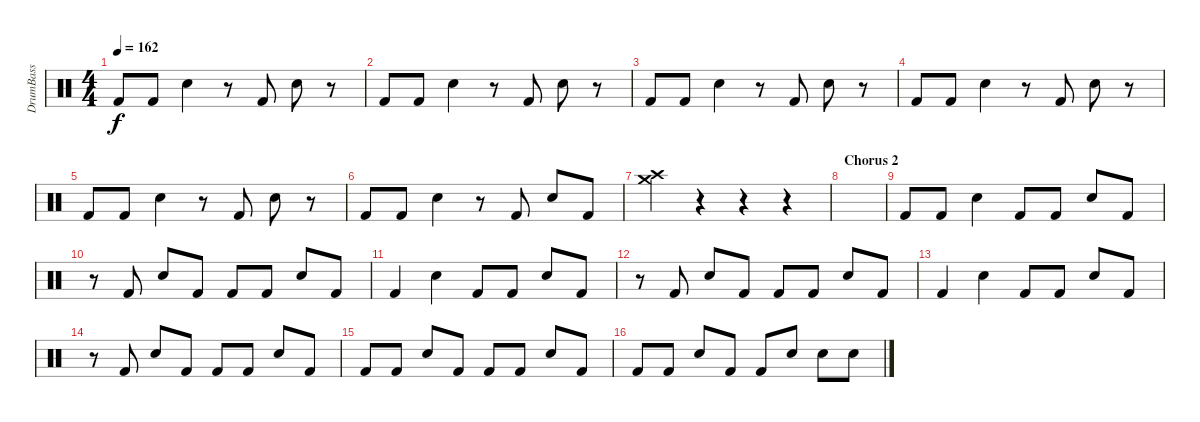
\track ("DrumBass" "DrumBass") {instrument percussion}
\staff {score}
\articulation defaults
\ts (4 4)
\tempo 162
\clef neutral
\ks c "Kick (hit) 2".8{dy f} "Kick (hit) 2".8 "Snare (hit) 2".4
r.8 "Kick (hit) 2".8 "Snare (hit) 2".8 r.8 |
"Kick (hit) 2".8 "Kick (hit) 2".8 "Snare (hit) 2".4 r.8 "Kick (hit) 2".8 "Snare (hit) 2".8 r.8 |
"Kick (hit) 2".8 "Kick (hit) 2".8 "Snare (hit) 2".4 r.8 "Kick (hit) 2".8 "Snare (hit) 2".8 r.8 |
"Kick (hit) 2".8 "Kick (hit) 2".8 "Snare (hit) 2".4 r.8 "Kick (hit) 2".8 "Snare (hit) 2".8 r.8 |
"Kick (hit) 2".8 "Kick (hit) 2".8 "Snare (hit) 2".4 r.8 "Kick (hit) 2".8 "Snare (hit) 2".8 r.8 |
"Kick (hit) 2".8 "Kick (hit) 2".8 "Snare (hit) 2".4 r.8 "Kick (hit) 2".8 "Snare (hit) 2".8 "Kick (hit) 2".8 |
("Crash medium (hit)" "Crash high (hit)").4 r.4 r.4 r.4 |
\section ("" "Chorus 2")
|
"Kick (hit) 2".8 "Kick (hit) 2".8 "Snare (hit) 2".4 "Kick (hit) 2".8 "Kick (hit) 2".8 "Snare (hit) 2".8 "Kick (hit) 2".8 |
r.8 "Kick (hit) 2".8 "Snare (hit) 2".8 "Kick (hit) 2".8 "Kick (hit) 2".8 "Kick (hit) 2".8 "Snare (hit) 2".8 "Kick (hit) 2".8 |
"Kick (hit) 2".4 "Snare (hit) 2".4 "Kick (hit) 2".8 "Kick (hit) 2".8 "Snare (hit) 2".8 "Kick (hit) 2".8 |
r.8 "Kick (hit) 2".8 "Snare (hit) 2".8 "Kick (hit) 2".8 "Kick (hit) 2".8 "Kick (hit) 2".8 "Snare (hit) 2".8 "Kick (hit) 2".8 |
"Kick (hit) 2".4 "Snare (hit) 2".4 "Kick (hit) 2".8 "Kick (hit) 2".8 "Snare (hit) 2".8 "Kick (hit) 2".8 |
r.8 "Kick (hit) 2".8 "Snare (hit) 2".8 "Kick (hit) 2".8 "Kick (hit) 2".8 "Kick (hit) 2".8 "Snare (hit) 2".8 "Kick (hit) 2".8 |
"Kick (hit) 2".8 "Kick (hit) 2".8 "Snare (hit) 2".8 "Kick (hit) 2".8 "Kick (hit) 2".8 "Kick (hit) 2".8 "Snare (hit) 2".8 "Kick (hit) 2".8 |
"Kick (hit) 2".8 "Kick (hit) 2".8 "Snare (hit) 2".8 "Kick (hit) 2".8 "Kick (hit) 2".8 "Snare (hit) 2"{tr (38 16)}.8 "Snare (hit) 2"{tr (38 16)}.8 "Snare (hit) 2"{tr (38 16)}.8
